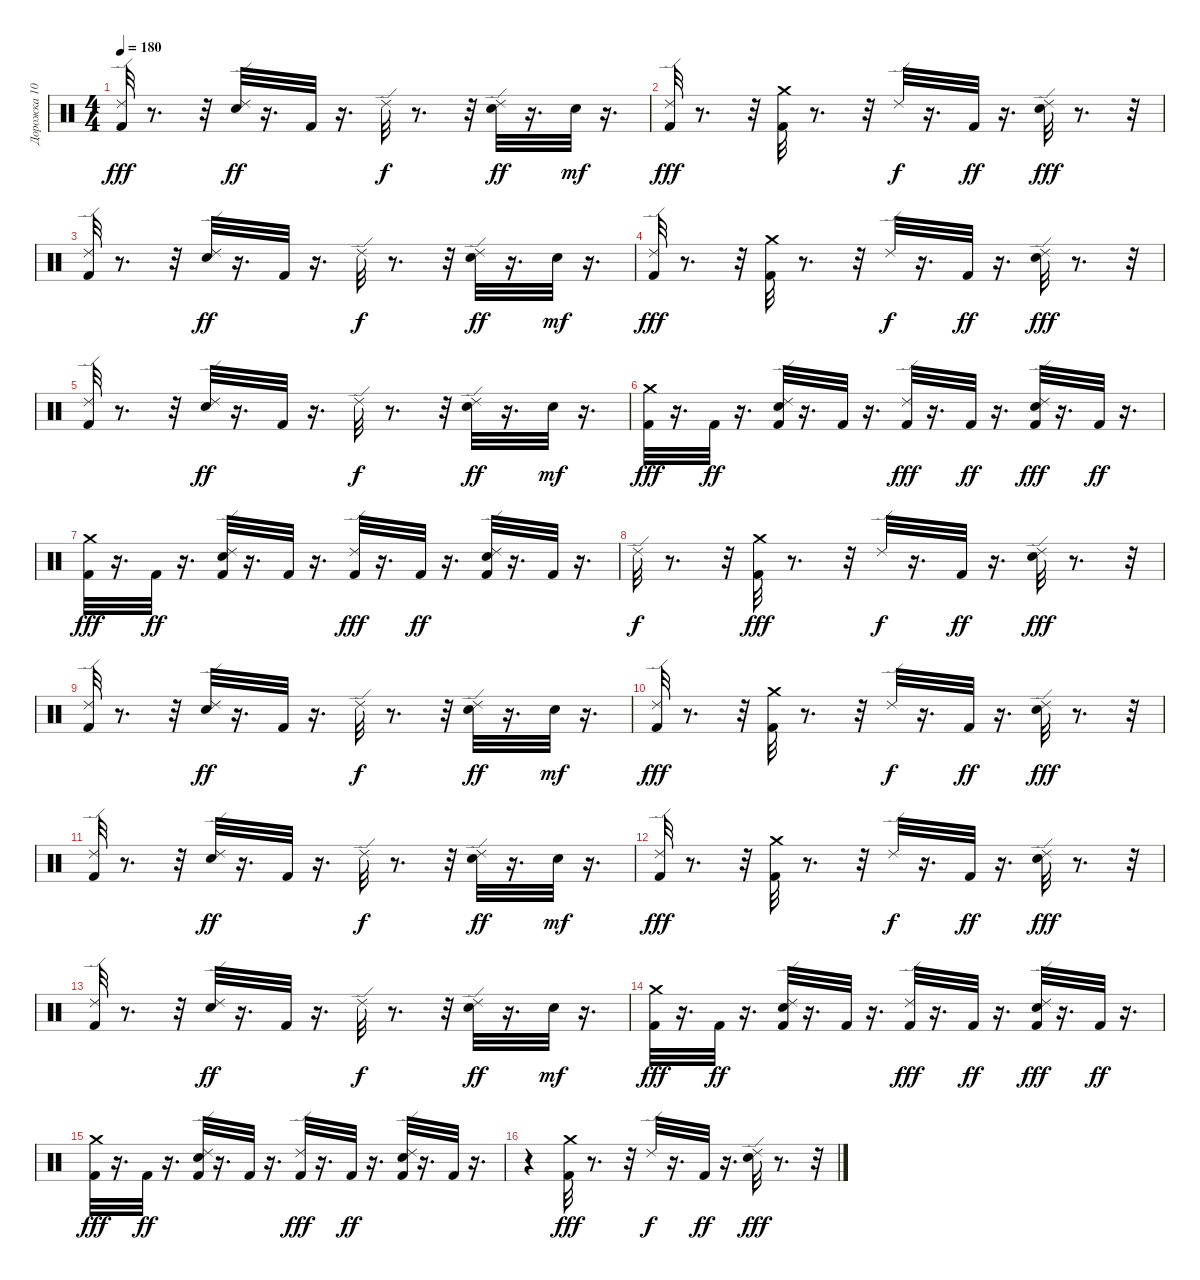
\track ("Дорожка 10" "Дорожка 10") {instrument percussion}
\staff {score}
\articulation defaults
\ts (4 4)
\tempo 180
\clef neutral
\ks c
("Kick (hit) 2" "Ride (edge) 2").32{dy fff} r.8{d} r.32 ("Snare (hit) 2" "Ride (edge) 2").32{dy ff} r.16{d} "Kick (hit) 2".32 r.16{d} "Ride (edge) 2".32{dy f} r.8{d} r.32 ("Snare (hit) 2" "Ride (edge) 2").32{dy ff} r.16{d} "Snare (hit) 2".32{dy mf} r.16{d} |
("Ride (edge) 2" "Kick (hit) 2").32{dy fff} r.8{d} r.32 ("Kick (hit) 2" "Crash medium (hit)").32 r.8{d} r.32 "Ride (edge) 2".32{dy f} r.16{d} "Kick (hit) 2".32{dy ff} r.16{d} ("Snare (hit) 2" "Ride (edge) 2").32{dy fff} r.8{d} r.32 |
("Kick (hit) 2" "Ride (edge) 2").32 r.8{d} r.32 ("Snare (hit) 2" "Ride (edge) 2").32{dy ff} r.16{d} "Kick (hit) 2".32 r.16{d} "Ride (edge) 2".32{dy f} r.8{d} r.32 ("Snare (hit) 2" "Ride (edge) 2").32{dy ff} r.16{d} "Snare (hit) 2".32{dy mf} r.16{d} |
("Ride (edge) 2" "Kick (hit) 2").32{dy fff} r.8{d} r.32 ("Kick (hit) 2" "Crash medium (hit)").32 r.8{d} r.32 "Ride (edge) 2".32{dy f} r.16{d} "Kick (hit) 2".32{dy ff} r.16{d} ("Snare (hit) 2" "Ride (edge) 2").32{dy fff} r.8{d} r.32 |
("Kick (hit) 2" "Ride (edge) 2").32 r.8{d} r.32 ("Snare (hit) 2" "Ride (edge) 2").32{dy ff} r.16{d} "Kick (hit) 2".32 r.16{d} "Ride (edge) 2".32{dy f} r.8{d} r.32 ("Snare (hit) 2" "Ride (edge) 2").32{dy ff} r.16{d} "Snare (hit) 2".32{dy mf} r.16{d} |
("Crash medium (hit)" "Kick (hit) 2").32{dy fff} r.16{d} "Kick (hit) 2".32{dy ff} r.16{d} ("Kick (hit) 2" "Snare (hit) 2" "Ride (edge) 2").32 r.16{d} "Kick (hit) 2".32 r.16{d} ("Kick (hit) 2" "Ride (edge) 2").32{dy fff} r.16{d} "Kick (hit) 2".32{dy ff} r.16{d} ("Kick (hit) 2" "Snare (hit) 2" "Ride (edge) 2").32{dy fff} r.16{d} "Kick (hit) 2".32{dy ff} r.16{d} |
("Kick (hit) 2" "Crash medium (hit)").32{dy fff} r.16{d} "Kick (hit) 2".32{dy ff} r.16{d} ("Kick (hit) 2" "Snare (hit) 2" "Ride (edge) 2").32 r.16{d} "Kick (hit) 2".32 r.16{d} ("Kick (hit) 2" "Ride (edge) 2").32{dy fff} r.16{d} "Kick (hit) 2".32{dy ff} r.16{d} ("Kick (hit) 2" "Snare (hit) 2" "Ride (edge) 2").32 r.16{d} "Kick (hit) 2".32 r.16{d} |
"Ride (edge) 2".32{dy f} r.8{d} r.32 ("Kick (hit) 2" "Crash medium (hit)").32{dy fff} r.8{d} r.32 "Ride (edge) 2".32{dy f} r.16{d} "Kick (hit) 2".32{dy ff} r.16{d} ("Snare (hit) 2" "Ride (edge) 2").32{dy fff} r.8{d} r.32 |
("Kick (hit) 2" "Ride (edge) 2").32 r.8{d} r.32 ("Snare (hit) 2" "Ride (edge) 2").32{dy ff} r.16{d} "Kick (hit) 2".32 r.16{d} "Ride (edge) 2".32{dy f} r.8{d} r.32 ("Snare (hit) 2" "Ride (edge) 2").32{dy ff} r.16{d} "Snare (hit) 2".32{dy mf} r.16{d} |
("Ride (edge) 2" "Kick (hit) 2").32{dy fff} r.8{d} r.32 ("Kick (hit) 2" "Crash medium (hit)").32 r.8{d} r.32 "Ride (edge) 2".32{dy f} r.16{d} "Kick (hit) 2".32{dy ff} r.16{d} ("Snare (hit) 2" "Ride (edge) 2").32{dy fff} r.8{d} r.32 |
("Kick (hit) 2" "Ride (edge) 2").32 r.8{d} r.32 ("Snare (hit) 2" "Ride (edge) 2").32{dy ff} r.16{d} "Kick (hit) 2".32 r.16{d} "Ride (edge) 2".32{dy f} r.8{d} r.32 ("Snare (hit) 2" "Ride (edge) 2").32{dy ff} r.16{d} "Snare (hit) 2".32{dy mf} r.16{d} |
("Ride (edge) 2" "Kick (hit) 2").32{dy fff} r.8{d} r.32 ("Kick (hit) 2" "Crash medium (hit)").32 r.8{d} r.32 "Ride (edge) 2".32{dy f} r.16{d} "Kick (hit) 2".32{dy ff} r.16{d} ("Snare (hit) 2" "Ride (edge) 2").32{dy fff} r.8{d} r.32 |
("Kick (hit) 2" "Ride (edge) 2").32 r.8{d} r.32 ("Snare (hit) 2" "Ride (edge) 2").32{dy ff} r.16{d} "Kick (hit) 2".32 r.16{d} "Ride (edge) 2".32{dy f} r.8{d} r.32 ("Snare (hit) 2" "Ride (edge) 2").32{dy ff} r.16{d} "Snare (hit) 2".32{dy mf} r.16{d} |
("Crash medium (hit)" "Kick (hit) 2").32{dy fff} r.16{d} "Kick (hit) 2".32{dy ff} r.16{d} ("Kick (hit) 2" "Snare (hit) 2" "Ride (edge) 2").32 r.16{d} "Kick (hit) 2".32 r.16{d} ("Kick (hit) 2" "Ride (edge) 2").32{dy fff} r.16{d} "Kick (hit) 2".32{dy ff} r.16{d} ("Kick (hit) 2" "Snare (hit) 2" "Ride (edge) 2").32{dy fff} r.16{d} "Kick (hit) 2".32{dy ff} r.16{d} |
("Kick (hit) 2" "Crash medium (hit)").32{dy fff} r.16{d} "Kick (hit) 2".32{dy ff} r.16{d} ("Kick (hit) 2" "Snare (hit) 2" "Ride (edge) 2").32 r.16{d} "Kick (hit) 2".32 r.16{d} ("Kick (hit) 2" "Ride (edge) 2").32{dy fff} r.16{d} "Kick (hit) 2".32{dy ff} r.16{d} ("Kick (hit) 2" "Snare (hit) 2" "Ride (edge) 2").32 r.16{d} "Kick (hit) 2".32 r.16{d} |
r.4 ("Kick (hit) 2" "Crash medium (hit)").32{dy fff} r.8{d} r.32 "Ride (edge) 2".32{dy f} r.16{d} "Kick (hit) 2".32{dy ff} r.16{d} ("Snare (hit) 2" "Ride (edge) 2").32{dy fff} r.8{d} r.32
